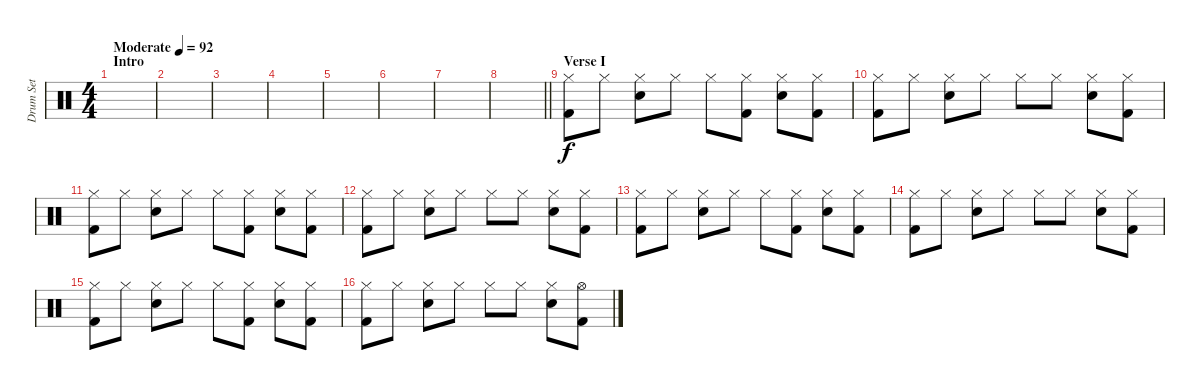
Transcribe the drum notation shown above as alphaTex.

\track ("Drum Set" "Drum Set") {instrument percussion}
\staff {score}
\articulation defaults
\ts (4 4)
\section ("" "Intro")
\tempo (92 "Moderate")
\clef neutral
\ks c
|
|
|
|
|
|
|
\barLineRight lightlight
|
\section ("" "Verse I")
("Hi-Hat (closed)" "Kick (hit) 2").8 "Hi-Hat (closed)".8 ("Hi-Hat (closed)" "Electric Snare (hit)").8 "Hi-Hat (closed)".8 "Hi-Hat (closed)".8 ("Hi-Hat (closed)" "Kick (hit) 2").8 ("Hi-Hat (closed)" "Electric Snare (hit)").8 ("Hi-Hat (closed)" "Kick (hit) 2").8 |
("Hi-Hat (closed)" "Kick (hit) 2").8 "Hi-Hat (closed)".8 ("Hi-Hat (closed)" "Electric Snare (hit)").8 "Hi-Hat (closed)".8 "Hi-Hat (closed)".8 "Hi-Hat (closed)".8 ("Hi-Hat (closed)" "Electric Snare (hit)").8 ("Hi-Hat (closed)" "Kick (hit) 2").8 |
("Hi-Hat (closed)" "Kick (hit) 2").8 "Hi-Hat (closed)".8 ("Hi-Hat (closed)" "Electric Snare (hit)").8 "Hi-Hat (closed)".8 "Hi-Hat (closed)".8 ("Hi-Hat (closed)" "Kick (hit) 2").8 ("Hi-Hat (closed)" "Electric Snare (hit)").8 ("Hi-Hat (closed)" "Kick (hit) 2").8 |
("Hi-Hat (closed)" "Kick (hit) 2").8 "Hi-Hat (closed)".8 ("Hi-Hat (closed)" "Electric Snare (hit)").8 "Hi-Hat (closed)".8 "Hi-Hat (closed)".8 "Hi-Hat (closed)".8 ("Hi-Hat (closed)" "Electric Snare (hit)").8 ("Hi-Hat (closed)" "Kick (hit) 2").8 |
("Hi-Hat (closed)" "Kick (hit) 2").8 "Hi-Hat (closed)".8 ("Hi-Hat (closed)" "Electric Snare (hit)").8 "Hi-Hat (closed)".8 "Hi-Hat (closed)".8 ("Hi-Hat (closed)" "Kick (hit) 2").8 ("Hi-Hat (closed)" "Electric Snare (hit)").8 ("Hi-Hat (closed)" "Kick (hit) 2").8 |
("Hi-Hat (closed)" "Kick (hit) 2").8 "Hi-Hat (closed)".8 ("Hi-Hat (closed)" "Electric Snare (hit)").8 "Hi-Hat (closed)".8 "Hi-Hat (closed)".8 "Hi-Hat (closed)".8 ("Hi-Hat (closed)" "Electric Snare (hit)").8 ("Hi-Hat (closed)" "Kick (hit) 2").8 |
("Hi-Hat (closed)" "Kick (hit) 2").8 "Hi-Hat (closed)".8 ("Hi-Hat (closed)" "Electric Snare (hit)").8 "Hi-Hat (closed)".8 "Hi-Hat (closed)".8 ("Hi-Hat (closed)" "Kick (hit) 2").8 ("Hi-Hat (closed)" "Electric Snare (hit)").8 ("Hi-Hat (closed)" "Kick (hit) 2").8 |
("Hi-Hat (closed)" "Kick (hit) 2").8 "Hi-Hat (closed)".8 ("Hi-Hat (closed)" "Electric Snare (hit)").8 "Hi-Hat (closed)".8 "Hi-Hat (closed)".8 "Hi-Hat (closed)".8 ("Hi-Hat (closed)" "Electric Snare (hit)").8 ("Hi-Hat (open)" "Kick (hit) 2").8
